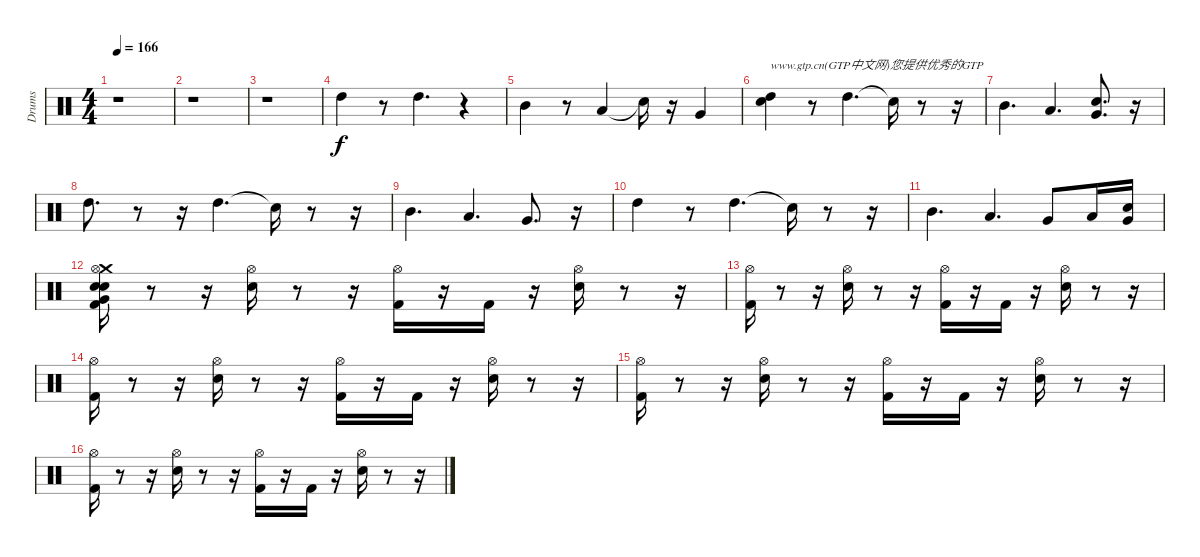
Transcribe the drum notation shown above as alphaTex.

\track ("Drums" "Drums") {instrument percussion}
\staff {score}
\articulation defaults
\ts (4 4)
\tempo 166
\clef neutral
\ks c
r.1{dy f} |
r.1 |
r.1 |
"High Tom (hit)".4 r.8 "High Tom (hit)".4{d} r.4 |
"Mid Tom (hit)".4 r.8 "Low Tom (hit)".4 "Snare (hit)"{t}.16 r.16 "Very Low Tom (hit)".4 |
("Snare (hit)" "High Tom (hit)").4{txt "www.gtp.cn(GTP中文网)您提供优秀的GTP"} r.8 "High Tom (hit)".4{d} "Snare (hit)"{t}.16 r.8 r.16 |
"Mid Tom (hit)".4{d} "Low Tom (hit)".4{d} ("Snare (hit)" "Very Low Tom (hit)").8{d} r.16 |
"High Tom (hit)".8{d} r.8 r.16 "High Tom (hit)".4{d} "Snare (hit)"{t}.16 r.8 r.16 |
"Mid Tom (hit)".4{d} "Low Tom (hit)".4{d} "Very Low Tom (hit)".8{d} r.16 |
"High Tom (hit)".4 r.8 "High Tom (hit)".4{d} "Snare (hit)"{t}.16 r.8 r.16 |
"Mid Tom (hit)".4{d} "Low Tom (hit)".4{d} "Very Low Tom (hit)".8 "Low Tom (hit)".16 ("Snare (hit)" "Very Low Tom (hit)").16 |
("Snare (hit)" "Electric Snare (hit)" "Crash medium (hit)" "Kick (hit) 2" "Hi-Hat (open)" "Very Low Tom (hit)").16 r.8 r.16 ("Hi-Hat (open)" "Snare (hit) 2").16 r.8 r.16 ("Hi-Hat (open)" "Kick (hit) 2").16 r.16 "Kick (hit) 2".16 r.16 ("Hi-Hat (open)" "Snare (hit) 2").16 r.8 r.16 |
("Kick (hit) 2" "Hi-Hat (open)").16 r.8 r.16 ("Hi-Hat (open)" "Snare (hit) 2").16 r.8 r.16 ("Hi-Hat (open)" "Kick (hit) 2").16 r.16 "Kick (hit) 2".16 r.16 ("Hi-Hat (open)" "Snare (hit) 2").16 r.8 r.16 |
("Kick (hit) 2" "Hi-Hat (open)").16 r.8 r.16 ("Hi-Hat (open)" "Snare (hit) 2").16 r.8 r.16 ("Hi-Hat (open)" "Kick (hit) 2").16 r.16 "Kick (hit) 2".16 r.16 ("Hi-Hat (open)" "Snare (hit) 2").16 r.8 r.16 |
("Kick (hit) 2" "Hi-Hat (open)").16 r.8 r.16 ("Hi-Hat (open)" "Snare (hit) 2").16 r.8 r.16 ("Hi-Hat (open)" "Kick (hit) 2").16 r.16 "Kick (hit) 2".16 r.16 ("Hi-Hat (open)" "Snare (hit) 2").16 r.8 r.16 |
("Kick (hit) 2" "Hi-Hat (open)").16 r.8 r.16 ("Hi-Hat (open)" "Snare (hit) 2").16 r.8 r.16 ("Hi-Hat (open)" "Kick (hit) 2").16 r.16 "Kick (hit) 2".16 r.16 ("Hi-Hat (open)" "Snare (hit) 2").16 r.8 r.16
